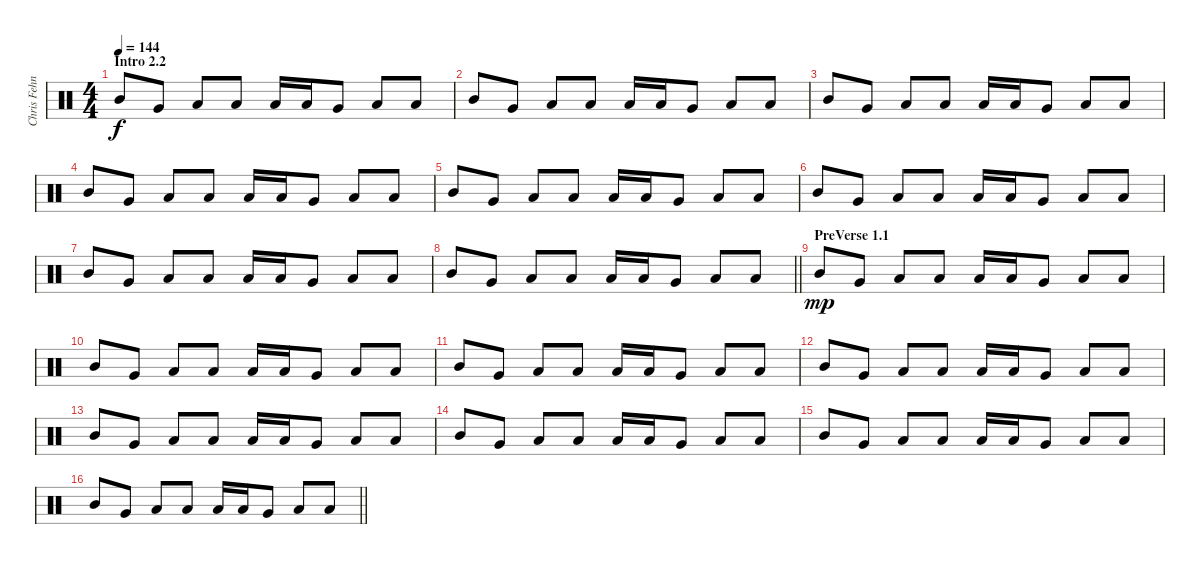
\track ("Chris Fehn" "Chris Fehn") {instrument percussion}
\staff {score}
\articulation defaults
\ts (4 4)
\section ("" "Intro 2.2")
\tempo 144
\clef neutral
\ks c "Mid Tom (hit)".8{dy f} "Very Low Tom (hit)".8 "Low Tom (hit)".8 "Low Floor Tom (hit)".8 "Low Tom (hit)".16 "Low Tom (hit)".16 "Very Low Tom (hit)".8 "Low Floor Tom (hit)".8 "Low Floor Tom (hit)".8
|
"Mid Tom (hit)".8 "Very Low Tom (hit)".8 "Low Tom (hit)".8 "Low Floor Tom (hit)".8 "Low Tom (hit)".16 "Low Tom (hit)".16 "Very Low Tom (hit)".8 "Low Floor Tom (hit)".8 "Low Floor Tom (hit)".8 |
"Mid Tom (hit)".8 "Very Low Tom (hit)".8 "Low Tom (hit)".8 "Low Floor Tom (hit)".8 "Low Tom (hit)".16 "Low Tom (hit)".16 "Very Low Tom (hit)".8 "Low Floor Tom (hit)".8 "Low Floor Tom (hit)".8 |
"Mid Tom (hit)".8 "Very Low Tom (hit)".8 "Low Tom (hit)".8 "Low Floor Tom (hit)".8 "Low Tom (hit)".16 "Low Tom (hit)".16 "Very Low Tom (hit)".8 "Low Floor Tom (hit)".8 "Low Floor Tom (hit)".8 |
"Mid Tom (hit)".8 "Very Low Tom (hit)".8 "Low Tom (hit)".8 "Low Floor Tom (hit)".8 "Low Tom (hit)".16 "Low Tom (hit)".16 "Very Low Tom (hit)".8 "Low Floor Tom (hit)".8 "Low Floor Tom (hit)".8 |
"Mid Tom (hit)".8 "Very Low Tom (hit)".8 "Low Tom (hit)".8 "Low Floor Tom (hit)".8 "Low Tom (hit)".16 "Low Tom (hit)".16 "Very Low Tom (hit)".8 "Low Floor Tom (hit)".8 "Low Floor Tom (hit)".8 |
"Mid Tom (hit)".8 "Very Low Tom (hit)".8 "Low Tom (hit)".8 "Low Floor Tom (hit)".8 "Low Tom (hit)".16 "Low Tom (hit)".16 "Very Low Tom (hit)".8 "Low Floor Tom (hit)".8 "Low Floor Tom (hit)".8 |
\barLineRight lightlight "Mid Tom (hit)".8 "Very Low Tom (hit)".8 "Low Tom (hit)".8 "Low Floor Tom (hit)".8 "Low Tom (hit)".16 "Low Tom (hit)".16 "Very Low Tom (hit)".8 "Low Floor Tom (hit)".8 "Low Floor Tom (hit)".8
|
\section ("" "PreVerse 1.1")
"Mid Tom (hit)".8{dy mp} "Very Low Tom (hit)".8 "Low Tom (hit)".8 "Low Floor Tom (hit)".8 "Low Tom (hit)".16 "Low Tom (hit)".16 "Very Low Tom (hit)".8 "Low Floor Tom (hit)".8 "Low Floor Tom (hit)".8 |
"Mid Tom (hit)".8 "Very Low Tom (hit)".8 "Low Tom (hit)".8 "Low Floor Tom (hit)".8 "Low Tom (hit)".16 "Low Tom (hit)".16 "Very Low Tom (hit)".8 "Low Floor Tom (hit)".8 "Low Floor Tom (hit)".8 |
"Mid Tom (hit)".8 "Very Low Tom (hit)".8 "Low Tom (hit)".8 "Low Floor Tom (hit)".8 "Low Tom (hit)".16 "Low Tom (hit)".16 "Very Low Tom (hit)".8 "Low Floor Tom (hit)".8 "Low Floor Tom (hit)".8 |
"Mid Tom (hit)".8 "Very Low Tom (hit)".8 "Low Tom (hit)".8 "Low Floor Tom (hit)".8 "Low Tom (hit)".16 "Low Tom (hit)".16 "Very Low Tom (hit)".8 "Low Floor Tom (hit)".8 "Low Floor Tom (hit)".8 |
"Mid Tom (hit)".8 "Very Low Tom (hit)".8 "Low Tom (hit)".8 "Low Floor Tom (hit)".8 "Low Tom (hit)".16 "Low Tom (hit)".16 "Very Low Tom (hit)".8 "Low Floor Tom (hit)".8 "Low Floor Tom (hit)".8 |
"Mid Tom (hit)".8 "Very Low Tom (hit)".8 "Low Tom (hit)".8 "Low Floor Tom (hit)".8 "Low Tom (hit)".16 "Low Tom (hit)".16 "Very Low Tom (hit)".8 "Low Floor Tom (hit)".8 "Low Floor Tom (hit)".8 |
"Mid Tom (hit)".8 "Very Low Tom (hit)".8 "Low Tom (hit)".8 "Low Floor Tom (hit)".8 "Low Tom (hit)".16 "Low Tom (hit)".16 "Very Low Tom (hit)".8 "Low Floor Tom (hit)".8 "Low Floor Tom (hit)".8 |
\barLineRight lightlight "Mid Tom (hit)".8 "Very Low Tom (hit)".8 "Low Tom (hit)".8 "Low Floor Tom (hit)".8 "Low Tom (hit)".16 "Low Tom (hit)".16 "Very Low Tom (hit)".8 "Low Floor Tom (hit)".8 "Low Floor Tom (hit)".8
